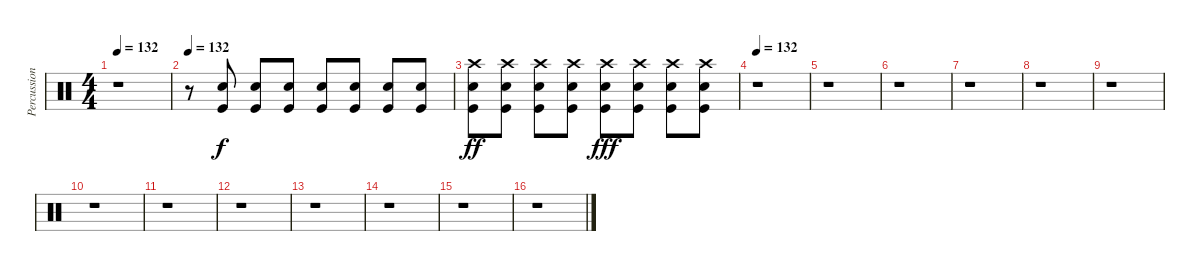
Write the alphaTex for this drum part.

\track ("Percussion" "Percussion") {instrument percussion}
\staff {score}
\articulation defaults
\ts (4 4)
\tempo 132
\clef neutral
\ks c
r.1{dy f} |
\tempo 132
r.8 ("Kick (hit)" "Electric Snare (hit)").8 ("Kick (hit)" "Electric Snare (hit)").8 ("Kick (hit)" "Electric Snare (hit)").8 ("Kick (hit)" "Electric Snare (hit)").8 ("Kick (hit)" "Electric Snare (hit)").8 ("Kick (hit)" "Electric Snare (hit)").8 ("Kick (hit)" "Electric Snare (hit)").8 |
("Kick (hit)" "Electric Snare (hit)" "Crash high (hit)").8{dy ff} ("Kick (hit)" "Electric Snare (hit)" "Crash high (hit)").8 ("Kick (hit)" "Electric Snare (hit)" "Crash high (hit)").8 ("Kick (hit)" "Electric Snare (hit)" "Crash high (hit)").8 ("Kick (hit)" "Electric Snare (hit)" "Crash high (hit)").8{dy fff} ("Kick (hit)" "Electric Snare (hit)" "Crash high (hit)").8 ("Kick (hit)" "Electric Snare (hit)" "Crash high (hit)").8 ("Kick (hit)" "Electric Snare (hit)" "Crash high (hit)").8 |
\tempo 132
r.1 |
r.1 |
r.1 |
r.1 |
r.1 |
r.1 |
r.1 |
r.1 |
r.1 |
r.1 |
r.1 |
r.1 |
r.1
